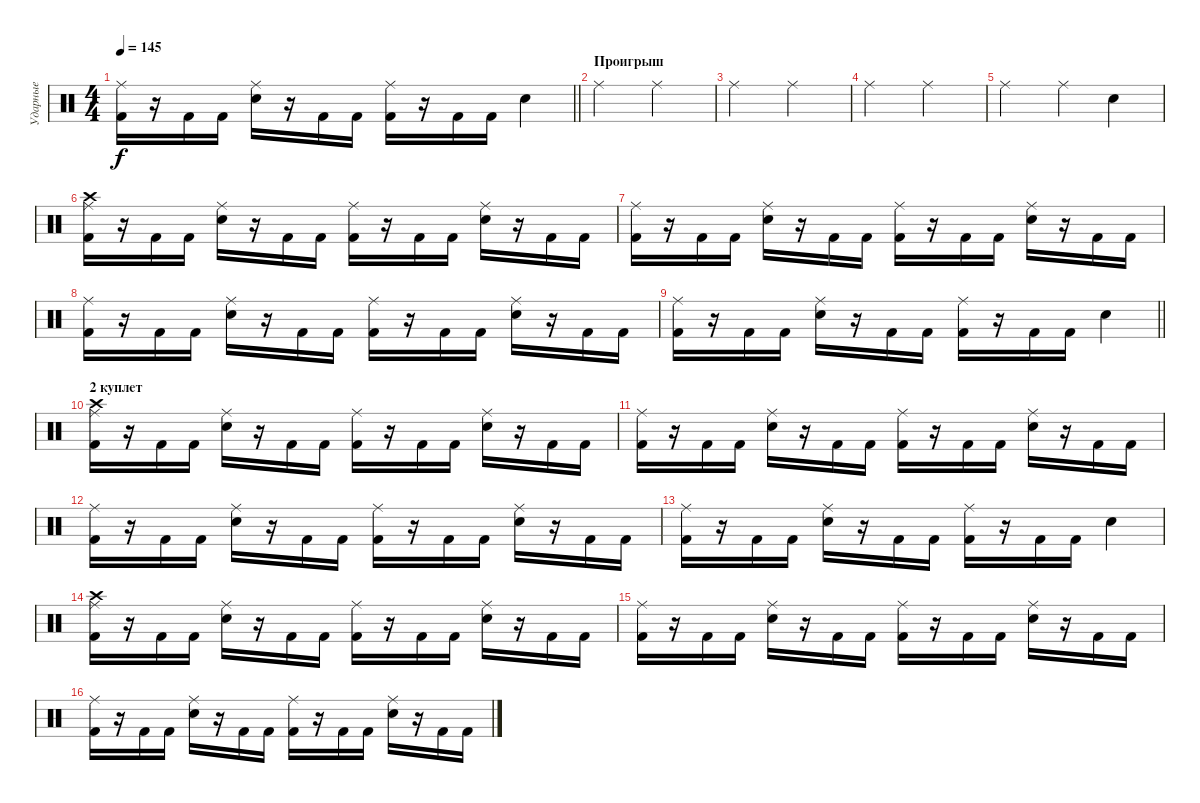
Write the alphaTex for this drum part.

\track ("Ударные" "Ударные") {instrument percussion}
\staff {score}
\articulation defaults
\ts (4 4)
\tempo 145
\clef neutral
\barLineRight lightlight
\ks c
("Ride (middle)" "Kick (hit) 2").16{dy f} r.16 "Kick (hit) 2".16 "Kick (hit) 2".16 ("Ride (middle)" "Snare (hit) 2").16 r.16 "Kick (hit) 2".16 "Kick (hit) 2".16 ("Ride (middle)" "Kick (hit) 2").16 r.16 "Kick (hit) 2".16 "Kick (hit) 2".16 "Snare (hit) 2".4 |
\section ("" "Проигрыш")
"Ride (middle)".2 "Ride (middle)".2 |
"Ride (middle)".2 "Ride (middle)".2 |
"Ride (middle)".2 "Ride (middle)".2 |
"Ride (middle)".2 "Ride (middle)".4 "Snare (hit) 2".4 |
("Ride (middle)" "Kick (hit) 2" "Crash high (hit)").16 r.16 "Kick (hit) 2".16 "Kick (hit) 2".16 ("Ride (middle)" "Snare (hit) 2").16 r.16 "Kick (hit) 2".16 "Kick (hit) 2".16 ("Ride (middle)" "Kick (hit) 2").16 r.16 "Kick (hit) 2".16 "Kick (hit) 2".16 ("Ride (middle)" "Snare (hit) 2").16 r.16 "Kick (hit) 2".16 "Kick (hit) 2".16 |
("Ride (middle)" "Kick (hit) 2").16 r.16 "Kick (hit) 2".16 "Kick (hit) 2".16 ("Ride (middle)" "Snare (hit) 2").16 r.16 "Kick (hit) 2".16 "Kick (hit) 2".16 ("Ride (middle)" "Kick (hit) 2").16 r.16 "Kick (hit) 2".16 "Kick (hit) 2".16 ("Ride (middle)" "Snare (hit) 2").16 r.16 "Kick (hit) 2".16 "Kick (hit) 2".16 |
("Ride (middle)" "Kick (hit) 2").16 r.16 "Kick (hit) 2".16 "Kick (hit) 2".16 ("Ride (middle)" "Snare (hit) 2").16 r.16 "Kick (hit) 2".16 "Kick (hit) 2".16 ("Ride (middle)" "Kick (hit) 2").16 r.16 "Kick (hit) 2".16 "Kick (hit) 2".16 ("Ride (middle)" "Snare (hit) 2").16 r.16 "Kick (hit) 2".16 "Kick (hit) 2".16 |
\barLineRight lightlight
("Ride (middle)" "Kick (hit) 2").16 r.16 "Kick (hit) 2".16 "Kick (hit) 2".16 ("Ride (middle)" "Snare (hit) 2").16 r.16 "Kick (hit) 2".16 "Kick (hit) 2".16 ("Ride (middle)" "Kick (hit) 2").16 r.16 "Kick (hit) 2".16 "Kick (hit) 2".16 "Snare (hit) 2".4 |
\section ("" "2 куплет")
("Ride (middle)" "Kick (hit) 2" "Crash high (hit)").16 r.16 "Kick (hit) 2".16 "Kick (hit) 2".16 ("Ride (middle)" "Snare (hit) 2").16 r.16 "Kick (hit) 2".16 "Kick (hit) 2".16 ("Ride (middle)" "Kick (hit) 2").16 r.16 "Kick (hit) 2".16 "Kick (hit) 2".16 ("Ride (middle)" "Snare (hit) 2").16 r.16 "Kick (hit) 2".16 "Kick (hit) 2".16 |
("Ride (middle)" "Kick (hit) 2").16 r.16 "Kick (hit) 2".16 "Kick (hit) 2".16 ("Ride (middle)" "Snare (hit) 2").16 r.16 "Kick (hit) 2".16 "Kick (hit) 2".16 ("Ride (middle)" "Kick (hit) 2").16 r.16 "Kick (hit) 2".16 "Kick (hit) 2".16 ("Ride (middle)" "Snare (hit) 2").16 r.16 "Kick (hit) 2".16 "Kick (hit) 2".16 |
("Ride (middle)" "Kick (hit) 2").16 r.16 "Kick (hit) 2".16 "Kick (hit) 2".16 ("Ride (middle)" "Snare (hit) 2").16 r.16 "Kick (hit) 2".16 "Kick (hit) 2".16 ("Ride (middle)" "Kick (hit) 2").16 r.16 "Kick (hit) 2".16 "Kick (hit) 2".16 ("Ride (middle)" "Snare (hit) 2").16 r.16 "Kick (hit) 2".16 "Kick (hit) 2".16 |
("Ride (middle)" "Kick (hit) 2").16 r.16 "Kick (hit) 2".16 "Kick (hit) 2".16 ("Ride (middle)" "Snare (hit) 2").16 r.16 "Kick (hit) 2".16 "Kick (hit) 2".16 ("Ride (middle)" "Kick (hit) 2").16 r.16 "Kick (hit) 2".16 "Kick (hit) 2".16 "Snare (hit) 2".4 |
("Ride (middle)" "Kick (hit) 2" "Crash high (hit)").16 r.16 "Kick (hit) 2".16 "Kick (hit) 2".16 ("Ride (middle)" "Snare (hit) 2").16 r.16 "Kick (hit) 2".16 "Kick (hit) 2".16 ("Ride (middle)" "Kick (hit) 2").16 r.16 "Kick (hit) 2".16 "Kick (hit) 2".16 ("Ride (middle)" "Snare (hit) 2").16 r.16 "Kick (hit) 2".16 "Kick (hit) 2".16 |
("Ride (middle)" "Kick (hit) 2").16 r.16 "Kick (hit) 2".16 "Kick (hit) 2".16 ("Ride (middle)" "Snare (hit) 2").16 r.16 "Kick (hit) 2".16 "Kick (hit) 2".16 ("Ride (middle)" "Kick (hit) 2").16 r.16 "Kick (hit) 2".16 "Kick (hit) 2".16 ("Ride (middle)" "Snare (hit) 2").16 r.16 "Kick (hit) 2".16 "Kick (hit) 2".16 |
("Ride (middle)" "Kick (hit) 2").16 r.16 "Kick (hit) 2".16 "Kick (hit) 2".16 ("Ride (middle)" "Snare (hit) 2").16 r.16 "Kick (hit) 2".16 "Kick (hit) 2".16 ("Ride (middle)" "Kick (hit) 2").16 r.16 "Kick (hit) 2".16 "Kick (hit) 2".16 ("Ride (middle)" "Snare (hit) 2").16 r.16 "Kick (hit) 2".16 "Kick (hit) 2".16
